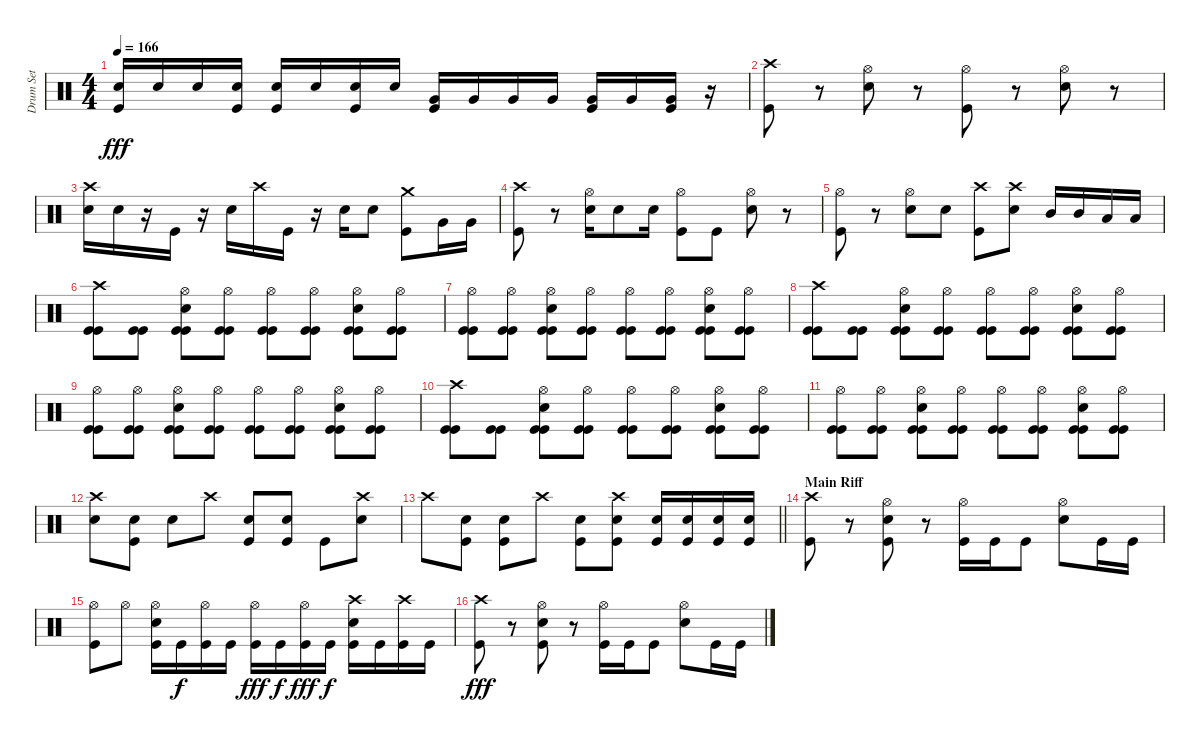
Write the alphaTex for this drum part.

\track ("Drum Set" "Drum Set") {instrument percussion}
\staff {score}
\articulation defaults
\ts (4 4)
\tempo 166
\clef neutral
\ks c
("Electric Snare (hit)" "Kick (hit)").16{dy fff} "Electric Snare (hit)".16 "Electric Snare (hit)".16 ("Electric Snare (hit)" "Kick (hit)").16 ("Electric Snare (hit)" "Kick (hit)").16 "Electric Snare (hit)".16 ("Electric Snare (hit)" "Kick (hit)").16 "Electric Snare (hit)".16 ("Kick (hit)" "Very Low Tom (hit)").16 "Very Low Tom (hit)".16 "Very Low Tom (hit)".16 "Very Low Tom (hit)".16 ("Kick (hit)" "Very Low Tom (hit)").16 "Very Low Tom (hit)".16 ("Kick (hit)" "Very Low Tom (hit)").16 r.16 |
("Kick (hit)" "Crash high (hit)").8 r.8 ("Electric Snare (hit)" "Hi-Hat (open)").8 r.8 ("Kick (hit)" "Hi-Hat (open)").8 r.8 ("Electric Snare (hit)" "Hi-Hat (open)").8 r.8 |
("Electric Snare (hit)" "Crash high (hit)").16 "Electric Snare (hit)".16 r.16 "Kick (hit)".16 r.16 "Electric Snare (hit)".16 "Crash high (hit)".16 "Kick (hit)".16 r.16 "Electric Snare (hit)".16 "Electric Snare (hit)".8 ("Kick (hit)" "Crash medium (hit)").8 "Very Low Tom (hit)".16 "Very Low Tom (hit)".16 |
("Kick (hit)" "Crash high (hit)").8 r.8 ("Electric Snare (hit)" "Hi-Hat (open)").16 "Electric Snare (hit)".8 "Electric Snare (hit)".16 ("Kick (hit)" "Hi-Hat (open)").8 "Kick (hit)".8 ("Electric Snare (hit)" "Hi-Hat (open)").8 r.8 |
("Kick (hit)" "Hi-Hat (open)").8 r.8 ("Electric Snare (hit)" "Hi-Hat (open)").8 "Electric Snare (hit)".8 ("Kick (hit)" "Crash high (hit)").8 ("Electric Snare (hit)" "Crash high (hit)").8 "Mid Tom (hit)".16 "Mid Tom (hit)".16 "Low Tom (hit)".16 "Low Tom (hit)".16 |
("Kick (hit)" "Kick (hit)" "Crash high (hit)").8 ("Kick (hit)" "Kick (hit)").8 ("Electric Snare (hit)" "Kick (hit)" "Kick (hit)" "Hi-Hat (open)").8 ("Kick (hit)" "Kick (hit)" "Hi-Hat (open)").8 ("Kick (hit)" "Kick (hit)" "Hi-Hat (open)").8 ("Kick (hit)" "Kick (hit)" "Hi-Hat (open)").8 ("Electric Snare (hit)" "Kick (hit)" "Kick (hit)" "Hi-Hat (open)").8 ("Kick (hit)" "Kick (hit)" "Hi-Hat (open)").8 |
("Kick (hit)" "Kick (hit)" "Hi-Hat (open)").8 ("Kick (hit)" "Kick (hit)" "Hi-Hat (open)").8 ("Electric Snare (hit)" "Kick (hit)" "Kick (hit)" "Hi-Hat (open)").8 ("Kick (hit)" "Kick (hit)" "Hi-Hat (open)").8 ("Kick (hit)" "Kick (hit)" "Hi-Hat (open)").8 ("Kick (hit)" "Kick (hit)" "Hi-Hat (open)").8 ("Electric Snare (hit)" "Kick (hit)" "Kick (hit)" "Hi-Hat (open)").8 ("Kick (hit)" "Kick (hit)" "Hi-Hat (open)").8 |
("Kick (hit)" "Kick (hit)" "Crash high (hit)").8 ("Kick (hit)" "Kick (hit)").8 ("Electric Snare (hit)" "Kick (hit)" "Kick (hit)" "Hi-Hat (open)").8 ("Kick (hit)" "Kick (hit)" "Hi-Hat (open)").8 ("Kick (hit)" "Kick (hit)" "Hi-Hat (open)").8 ("Kick (hit)" "Kick (hit)" "Hi-Hat (open)").8 ("Electric Snare (hit)" "Kick (hit)" "Kick (hit)" "Hi-Hat (open)").8 ("Kick (hit)" "Kick (hit)" "Hi-Hat (open)").8 |
("Kick (hit)" "Kick (hit)" "Hi-Hat (open)").8 ("Kick (hit)" "Kick (hit)" "Hi-Hat (open)").8 ("Electric Snare (hit)" "Kick (hit)" "Kick (hit)" "Hi-Hat (open)").8 ("Kick (hit)" "Kick (hit)" "Hi-Hat (open)").8 ("Kick (hit)" "Kick (hit)" "Hi-Hat (open)").8 ("Kick (hit)" "Kick (hit)" "Hi-Hat (open)").8 ("Electric Snare (hit)" "Kick (hit)" "Kick (hit)" "Hi-Hat (open)").8 ("Kick (hit)" "Kick (hit)" "Hi-Hat (open)").8 |
("Kick (hit)" "Kick (hit)" "Crash high (hit)").8 ("Kick (hit)" "Kick (hit)").8 ("Electric Snare (hit)" "Kick (hit)" "Kick (hit)" "Hi-Hat (open)").8 ("Kick (hit)" "Kick (hit)" "Hi-Hat (open)").8 ("Kick (hit)" "Kick (hit)" "Hi-Hat (open)").8 ("Kick (hit)" "Kick (hit)" "Hi-Hat (open)").8 ("Electric Snare (hit)" "Kick (hit)" "Kick (hit)" "Hi-Hat (open)").8 ("Kick (hit)" "Kick (hit)" "Hi-Hat (open)").8 |
("Kick (hit)" "Kick (hit)" "Hi-Hat (open)").8 ("Kick (hit)" "Kick (hit)" "Hi-Hat (open)").8 ("Electric Snare (hit)" "Kick (hit)" "Kick (hit)" "Hi-Hat (open)").8 ("Kick (hit)" "Kick (hit)" "Hi-Hat (open)").8 ("Kick (hit)" "Kick (hit)" "Hi-Hat (open)").8 ("Kick (hit)" "Kick (hit)" "Hi-Hat (open)").8 ("Electric Snare (hit)" "Kick (hit)" "Kick (hit)" "Hi-Hat (open)").8 ("Kick (hit)" "Kick (hit)" "Hi-Hat (open)").8 |
("Electric Snare (hit)" "Crash high (hit)").8 ("Electric Snare (hit)" "Kick (hit)").8 "Electric Snare (hit)".8 "Crash high (hit)".8 ("Electric Snare (hit)" "Kick (hit)").8 ("Electric Snare (hit)" "Kick (hit)").8 "Kick (hit)".8 ("Electric Snare (hit)" "Crash high (hit)").8 |
\barLineRight lightlight "Crash high (hit)".8
("Electric Snare (hit)" "Kick (hit)").8 ("Electric Snare (hit)" "Kick (hit)").8 "Crash high (hit)".8 ("Electric Snare (hit)" "Kick (hit)").8 ("Electric Snare (hit)" "Kick (hit)" "Crash high (hit)").8 ("Electric Snare (hit)" "Kick (hit)").16 ("Electric Snare (hit)" "Kick (hit)").16 ("Electric Snare (hit)" "Kick (hit)").16 ("Electric Snare (hit)" "Kick (hit)").16 |
\section ("" "Main Riff")
("Kick (hit)" "Crash high (hit)").8 r.8 ("Electric Snare (hit)" "Kick (hit)" "Hi-Hat (open)").8 r.8 ("Kick (hit)" "Hi-Hat (open)").16 "Kick (hit)".16 "Kick (hit)".8 ("Electric Snare (hit)" "Hi-Hat (open)").8 "Kick (hit)".16 "Kick (hit)".16 |
("Kick (hit)" "Hi-Hat (open)").8 "Hi-Hat (open)".8 ("Electric Snare (hit)" "Kick (hit)" "Hi-Hat (open)").16 "Kick (hit)".16{dy f} ("Kick (hit)" "Hi-Hat (open)").16 "Kick (hit)".16 ("Kick (hit)" "Hi-Hat (open)").16{dy fff} "Kick (hit)".16{dy f} ("Kick (hit)" "Hi-Hat (open)").16{dy fff} "Kick (hit)".16{dy f} ("Electric Snare (hit)" "Kick (hit)" "Crash high (hit)").16 "Kick (hit)".16 ("Kick (hit)" "Crash high (hit)").16 "Kick (hit)".16 |
("Kick (hit)" "Crash high (hit)").8{dy fff} r.8 ("Electric Snare (hit)" "Kick (hit)" "Hi-Hat (open)").8 r.8 ("Kick (hit)" "Hi-Hat (open)").16 "Kick (hit)".16 "Kick (hit)".8 ("Electric Snare (hit)" "Hi-Hat (open)").8 "Kick (hit)".16 "Kick (hit)".16
